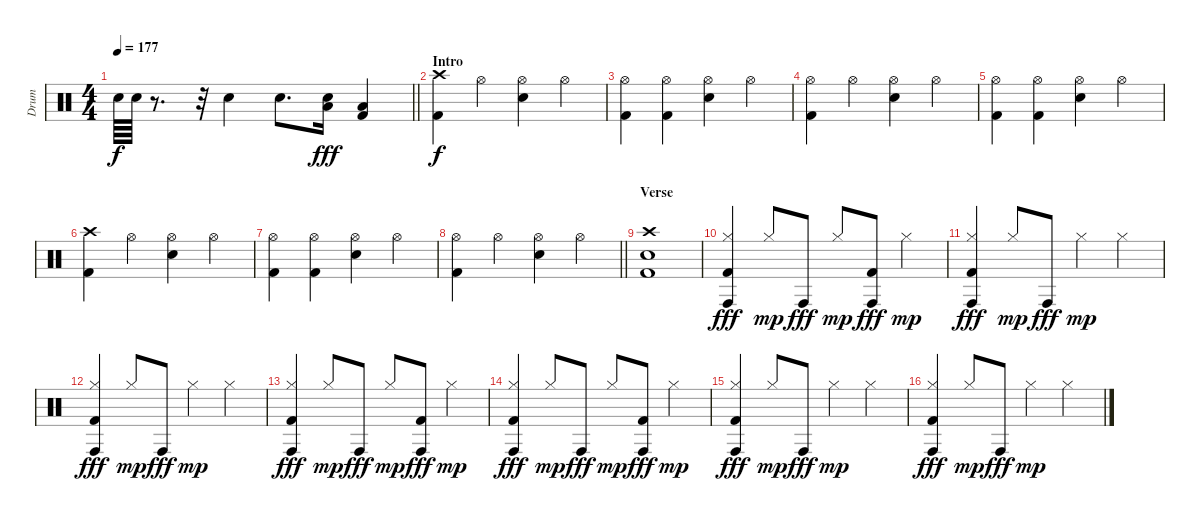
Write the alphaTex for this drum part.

\track ("Drum" "Drum") {instrument percussion}
\staff {score}
\articulation defaults
\ts (4 4)
\tempo 177
\clef neutral
\barLineRight lightlight
\ks c "Snare (hit) 2".64{dy f} "Snare (hit) 2".64
r.8{d} r.32 "Snare (hit) 2".4 "Snare (hit) 2".8{d} ("Snare (hit) 2" "Low Floor Tom (hit)").16{dy fff} ("Low Floor Tom (hit)" "Kick (hit) 2").4 |
\section ("" "Intro")
("Crash high (hit)" "Kick (hit) 2").4{dy f} "Hi-Hat (open)".4 ("Snare (hit) 2" "Hi-Hat (open)").4 "Hi-Hat (open)".4 |
("Hi-Hat (open)" "Kick (hit) 2").4 ("Hi-Hat (open)" "Kick (hit) 2").4 ("Snare (hit) 2" "Hi-Hat (open)").4 "Hi-Hat (open)".4 |
("Hi-Hat (open)" "Kick (hit) 2").4 "Hi-Hat (open)".4 ("Snare (hit) 2" "Hi-Hat (open)").4 "Hi-Hat (open)".4 |
("Hi-Hat (open)" "Kick (hit) 2").4 ("Hi-Hat (open)" "Kick (hit) 2").4 ("Snare (hit) 2" "Hi-Hat (open)").4 "Hi-Hat (open)".4 |
("Crash high (hit)" "Kick (hit) 2").4 "Hi-Hat (open)".4 ("Snare (hit) 2" "Hi-Hat (open)").4 "Hi-Hat (open)".4 |
("Hi-Hat (open)" "Kick (hit) 2").4 ("Hi-Hat (open)" "Kick (hit) 2").4 ("Snare (hit) 2" "Hi-Hat (open)").4 "Hi-Hat (open)".4 |
\barLineRight lightlight
("Hi-Hat (open)" "Kick (hit) 2").4 "Hi-Hat (open)".4 ("Snare (hit) 2" "Hi-Hat (open)").4 "Hi-Hat (open)".4 |
\section ("" "Verse")
("Crash high (hit)" "Electric Snare (hit)" "Kick (hit) 2").1 |
("Hi-Hat (closed)" "Conga high (hit)" "Kick (hit) 2").4{dy fff} "Hi-Hat (closed)".8{dy mp} "Conga high (hit)".8{dy fff} "Hi-Hat (closed)".8{dy mp} ("Conga high (hit)" "Kick (hit) 2").8{dy fff} "Hi-Hat (closed)".4{dy mp} |
("Hi-Hat (closed)" "Conga high (hit)" "Kick (hit) 2").4{dy fff} "Hi-Hat (closed)".8{dy mp} "Conga high (hit)".8{dy fff} "Hi-Hat (closed)".4{dy mp} "Hi-Hat (closed)".4 |
("Hi-Hat (closed)" "Conga high (hit)" "Kick (hit) 2").4{dy fff} "Hi-Hat (closed)".8{dy mp} "Conga high (hit)".8{dy fff} "Hi-Hat (closed)".4{dy mp} "Hi-Hat (closed)".4 |
("Hi-Hat (closed)" "Conga high (hit)" "Kick (hit) 2").4{dy fff} "Hi-Hat (closed)".8{dy mp} "Conga high (hit)".8{dy fff} "Hi-Hat (closed)".8{dy mp} ("Conga high (hit)" "Kick (hit) 2").8{dy fff} "Hi-Hat (closed)".4{dy mp} |
("Hi-Hat (closed)" "Conga high (hit)" "Kick (hit) 2").4{dy fff} "Hi-Hat (closed)".8{dy mp} "Conga high (hit)".8{dy fff} "Hi-Hat (closed)".8{dy mp} ("Conga high (hit)" "Kick (hit) 2").8{dy fff} "Hi-Hat (closed)".4{dy mp} |
("Hi-Hat (closed)" "Conga high (hit)" "Kick (hit) 2").4{dy fff} "Hi-Hat (closed)".8{dy mp} "Conga high (hit)".8{dy fff} "Hi-Hat (closed)".4{dy mp} "Hi-Hat (closed)".4 |
("Hi-Hat (closed)" "Conga high (hit)" "Kick (hit) 2").4{dy fff} "Hi-Hat (closed)".8{dy mp} "Conga high (hit)".8{dy fff} "Hi-Hat (closed)".4{dy mp} "Hi-Hat (closed)".4
